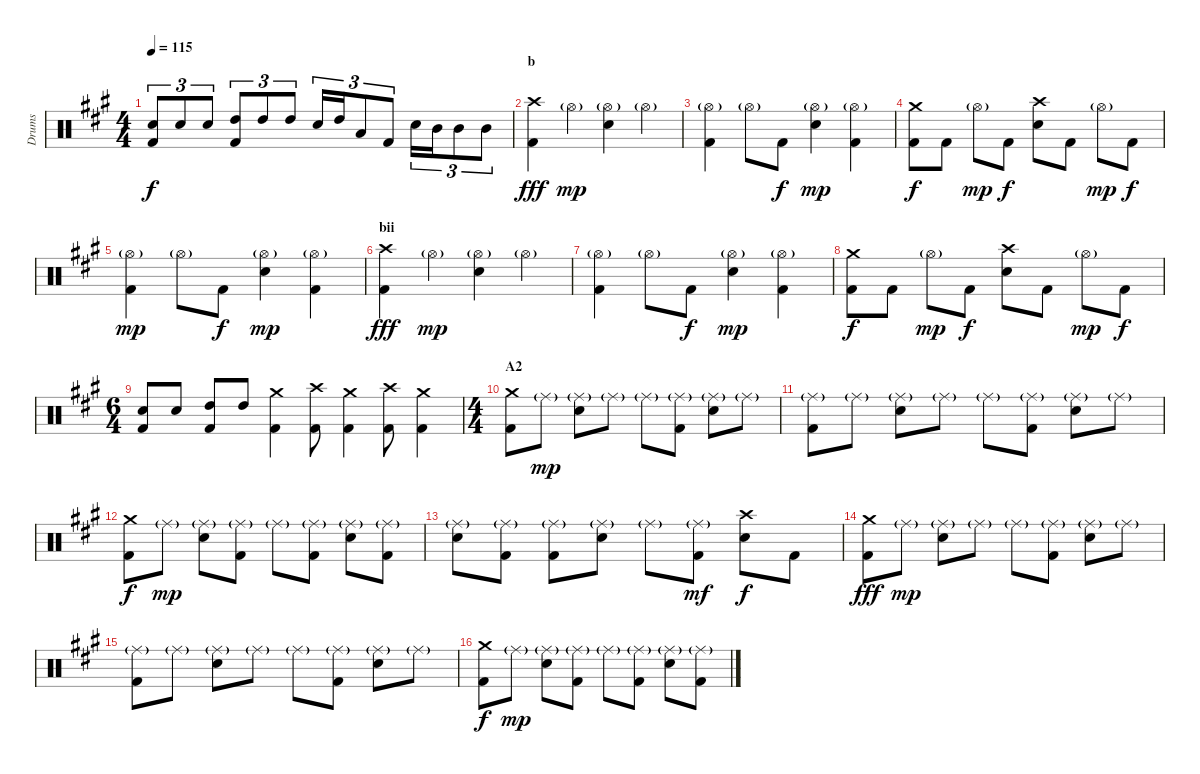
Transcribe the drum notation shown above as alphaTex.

\track ("Drums" "Drums") {instrument percussion}
\staff {score}
\articulation defaults
\ts (4 4)
\tempo 115
\clef neutral
\ks a
("Snare (hit) 2" "Kick (hit) 2").8{tu (3 2) dy f} "Snare (hit) 2".8{tu (3 2)} "Snare (hit) 2".8{tu (3 2)} ("High Tom (hit)" "Kick (hit) 2").8{tu (3 2)} "High Tom (hit)".8{tu (3 2)} "High Tom (hit)".8{tu (3 2)} "Snare (hit) 2".16{tu (3 2)} "High Tom (hit)".16{tu (3 2)} "Low Tom (hit)".8{tu (3 2)} "Kick (hit) 2".8{tu (3 2)} "Snare (hit) 2".16{tu (3 2)} "Mid Tom (hit)".16{tu (3 2)} "Mid Tom (hit)".8{tu (3 2)} "Mid Tom (hit)".8{tu (3 2)} |
\section ("" "b")
("Crash high (hit)" "Kick (hit) 2").4{dy fff} "Hi-Hat (open)"{g}.4{dy mp} ("Hi-Hat (open)"{g} "Snare (hit) 2").4 "Hi-Hat (open)"{g}.4 |
("Hi-Hat (open)"{g} "Kick (hit) 2").4 "Hi-Hat (open)"{g}.8 "Kick (hit) 2".8{dy f} ("Hi-Hat (open)"{g} "Snare (hit) 2").4{dy mp} ("Hi-Hat (open)"{g} "Kick (hit) 2").4 |
("Crash medium (hit)" "Kick (hit) 2").8{dy f} "Kick (hit) 2".8 "Hi-Hat (open)"{g}.8{dy mp} "Kick (hit) 2".8{dy f} ("Crash high (hit)" "Snare (hit) 2").8 "Kick (hit) 2".8 "Hi-Hat (open)"{g}.8{dy mp} "Kick (hit) 2".8{dy f} |
("Hi-Hat (open)"{g} "Kick (hit) 2").4{dy mp} "Hi-Hat (open)"{g}.8 "Kick (hit) 2".8{dy f} ("Hi-Hat (open)"{g} "Snare (hit) 2").4{dy mp} ("Hi-Hat (open)"{g} "Kick (hit) 2").4 |
\section ("" "bii")
("Crash high (hit)" "Kick (hit) 2").4{dy fff} "Hi-Hat (open)"{g}.4{dy mp} ("Hi-Hat (open)"{g} "Snare (hit) 2").4 "Hi-Hat (open)"{g}.4 |
("Hi-Hat (open)"{g} "Kick (hit) 2").4 "Hi-Hat (open)"{g}.8 "Kick (hit) 2".8{dy f} ("Hi-Hat (open)"{g} "Snare (hit) 2").4{dy mp} ("Hi-Hat (open)"{g} "Kick (hit) 2").4 |
("Crash medium (hit)" "Kick (hit) 2").8{dy f} "Kick (hit) 2".8 "Hi-Hat (open)"{g}.8{dy mp} "Kick (hit) 2".8{dy f} ("Crash high (hit)" "Snare (hit) 2").8 "Kick (hit) 2".8 "Hi-Hat (open)"{g}.8{dy mp} "Kick (hit) 2".8{dy f} |
\ts (6 4)
("Snare (hit) 2" "Kick (hit) 2").8 "Snare (hit) 2".8 ("High Tom (hit)" "Kick (hit) 2").8 "High Tom (hit)".8 ("Crash medium (hit)" "Kick (hit) 2").4 ("Crash high (hit)" "Kick (hit) 2").8 ("Crash medium (hit)" "Kick (hit) 2").4 ("Crash high (hit)" "Kick (hit) 2").8 ("Crash medium (hit)" "Kick (hit) 2").4 |
\ts (4 4)
\section ("" "A2")
("Crash medium (hit)" "Kick (hit) 2").8 "Ride (middle)"{g}.8{dy mp} ("Ride (middle)"{g} "Snare (hit) 2").8 "Ride (middle)"{g}.8 "Ride (middle)"{g}.8 ("Ride (middle)"{g} "Kick (hit) 2").8 ("Ride (middle)"{g} "Snare (hit) 2").8 "Ride (middle)"{g}.8 |
("Ride (middle)"{g} "Kick (hit) 2").8 "Ride (middle)"{g}.8 ("Ride (middle)"{g} "Snare (hit) 2").8 "Ride (middle)"{g}.8 "Ride (middle)"{g}.8 ("Ride (middle)"{g} "Kick (hit) 2").8 ("Ride (middle)"{g} "Snare (hit) 2").8 "Ride (middle)"{g}.8 |
("Crash medium (hit)" "Kick (hit) 2").8{dy f} "Ride (middle)"{g}.8{dy mp} ("Ride (middle)"{g} "Snare (hit) 2").8 ("Ride (middle)"{g} "Kick (hit) 2").8 "Ride (middle)"{g}.8 ("Ride (middle)"{g} "Kick (hit) 2").8 ("Ride (middle)"{g} "Snare (hit) 2").8 ("Ride (middle)"{g} "Kick (hit) 2").8 |
("Ride (middle)"{g} "Snare (hit) 2").8 ("Ride (middle)"{g} "Kick (hit) 2").8 ("Ride (middle)"{g} "Kick (hit) 2").8 ("Ride (middle)"{g} "Snare (hit) 2").8 "Ride (middle)"{g}.8 ("Ride (middle)"{g} "Kick (hit) 2").8{dy mf} ("Crash high (hit)" "Snare (hit) 2").8{dy f} "Kick (hit) 2".8 |
("Crash medium (hit)" "Kick (hit) 2").8{dy fff} "Ride (middle)"{g}.8{dy mp} ("Ride (middle)"{g} "Snare (hit) 2").8 "Ride (middle)"{g}.8 "Ride (middle)"{g}.8 ("Ride (middle)"{g} "Kick (hit) 2").8 ("Ride (middle)"{g} "Snare (hit) 2").8 "Ride (middle)"{g}.8 |
("Ride (middle)"{g} "Kick (hit) 2").8 "Ride (middle)"{g}.8 ("Ride (middle)"{g} "Snare (hit) 2").8 "Ride (middle)"{g}.8 "Ride (middle)"{g}.8 ("Ride (middle)"{g} "Kick (hit) 2").8 ("Ride (middle)"{g} "Snare (hit) 2").8 "Ride (middle)"{g}.8 |
("Crash medium (hit)" "Kick (hit) 2").8{dy f} "Ride (middle)"{g}.8{dy mp} ("Ride (middle)"{g} "Snare (hit) 2").8 ("Ride (middle)"{g} "Kick (hit) 2").8 "Ride (middle)"{g}.8 ("Ride (middle)"{g} "Kick (hit) 2").8 ("Ride (middle)"{g} "Snare (hit) 2").8 ("Ride (middle)"{g} "Kick (hit) 2").8
